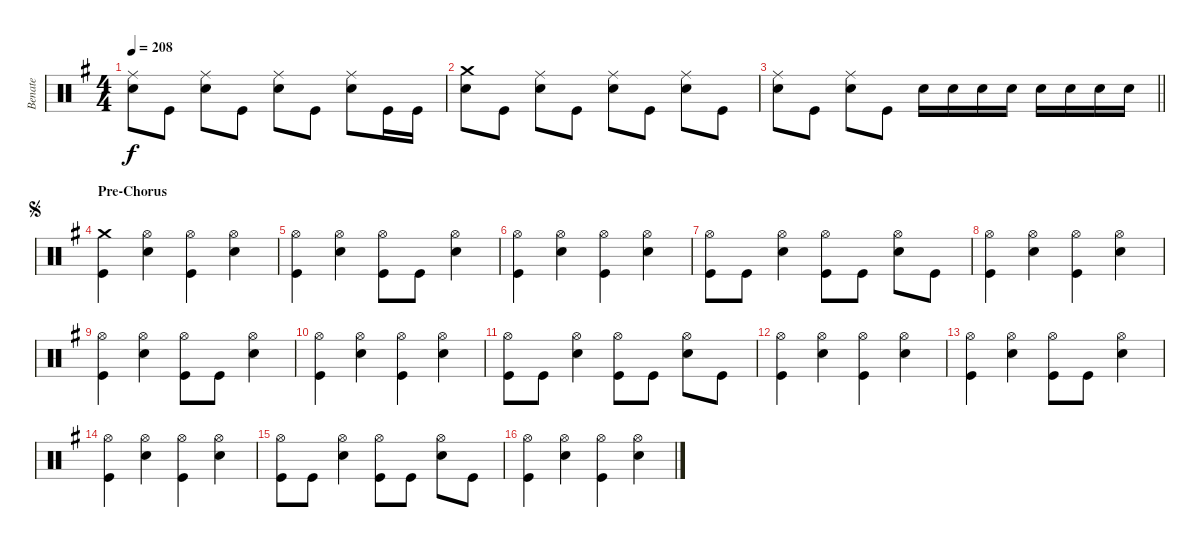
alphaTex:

\track ("Benate" "Benate") {instrument percussion}
\staff {score}
\articulation defaults
\ts (4 4)
\tempo 208
\clef neutral
\ks g
("Ride (middle)" "Snare (hit) 2").8{dy f} "Kick (hit)".8 ("Ride (middle)" "Snare (hit) 2").8 "Kick (hit)".8 ("Ride (middle)" "Snare (hit) 2").8 "Kick (hit)".8 ("Ride (middle)" "Snare (hit) 2").8 "Kick (hit)".16 "Kick (hit)".16 |
("Crash medium (hit)" "Snare (hit) 2").8 "Kick (hit)".8 ("Ride (middle)" "Snare (hit) 2").8 "Kick (hit)".8 ("Ride (middle)" "Snare (hit) 2").8 "Kick (hit)".8 ("Ride (middle)" "Snare (hit) 2").8 "Kick (hit)".8 |
\barLineRight lightlight
("Ride (middle)" "Snare (hit) 2").8 "Kick (hit)".8 ("Ride (middle)" "Snare (hit) 2").8 "Kick (hit)".8 "Snare (hit) 2".16 "Snare (hit) 2".16 "Snare (hit) 2".16 "Snare (hit) 2".16 "Snare (hit) 2".16 "Snare (hit) 2".16 "Snare (hit) 2".16 "Snare (hit) 2".16 |
\section ("" "Pre-Chorus")
\jump segno
("Crash medium (hit)" "Kick (hit)").4 ("Hi-Hat (open)" "Snare (hit) 2").4 ("Hi-Hat (open)" "Kick (hit)").4 ("Hi-Hat (open)" "Snare (hit) 2").4 |
("Hi-Hat (open)" "Kick (hit)").4 ("Hi-Hat (open)" "Snare (hit) 2").4 ("Hi-Hat (open)" "Kick (hit)").8 "Kick (hit)".8 ("Hi-Hat (open)" "Snare (hit) 2").4 |
("Hi-Hat (open)" "Kick (hit)").4 ("Hi-Hat (open)" "Snare (hit) 2").4 ("Hi-Hat (open)" "Kick (hit)").4 ("Hi-Hat (open)" "Snare (hit) 2").4 |
("Hi-Hat (open)" "Kick (hit)").8 "Kick (hit)".8 ("Hi-Hat (open)" "Snare (hit) 2").4 ("Hi-Hat (open)" "Kick (hit)").8 "Kick (hit)".8 ("Hi-Hat (open)" "Snare (hit) 2").8 "Kick (hit)".8 |
("Hi-Hat (open)" "Kick (hit)").4 ("Hi-Hat (open)" "Snare (hit) 2").4 ("Hi-Hat (open)" "Kick (hit)").4 ("Hi-Hat (open)" "Snare (hit) 2").4 |
("Hi-Hat (open)" "Kick (hit)").4 ("Hi-Hat (open)" "Snare (hit) 2").4 ("Hi-Hat (open)" "Kick (hit)").8 "Kick (hit)".8 ("Hi-Hat (open)" "Snare (hit) 2").4 |
("Hi-Hat (open)" "Kick (hit)").4 ("Hi-Hat (open)" "Snare (hit) 2").4 ("Hi-Hat (open)" "Kick (hit)").4 ("Hi-Hat (open)" "Snare (hit) 2").4 |
("Hi-Hat (open)" "Kick (hit)").8 "Kick (hit)".8 ("Hi-Hat (open)" "Snare (hit) 2").4 ("Hi-Hat (open)" "Kick (hit)").8 "Kick (hit)".8 ("Hi-Hat (open)" "Snare (hit) 2").8 "Kick (hit)".8 |
("Hi-Hat (open)" "Kick (hit)").4 ("Hi-Hat (open)" "Snare (hit) 2").4 ("Hi-Hat (open)" "Kick (hit)").4 ("Hi-Hat (open)" "Snare (hit) 2").4 |
("Hi-Hat (open)" "Kick (hit)").4 ("Hi-Hat (open)" "Snare (hit) 2").4 ("Hi-Hat (open)" "Kick (hit)").8 "Kick (hit)".8 ("Hi-Hat (open)" "Snare (hit) 2").4 |
("Hi-Hat (open)" "Kick (hit)").4 ("Hi-Hat (open)" "Snare (hit) 2").4 ("Hi-Hat (open)" "Kick (hit)").4 ("Hi-Hat (open)" "Snare (hit) 2").4 |
("Hi-Hat (open)" "Kick (hit)").8 "Kick (hit)".8 ("Hi-Hat (open)" "Snare (hit) 2").4 ("Hi-Hat (open)" "Kick (hit)").8 "Kick (hit)".8 ("Hi-Hat (open)" "Snare (hit) 2").8 "Kick (hit)".8 |
("Hi-Hat (open)" "Kick (hit)").4 ("Hi-Hat (open)" "Snare (hit) 2").4 ("Hi-Hat (open)" "Kick (hit)").4 ("Hi-Hat (open)" "Snare (hit) 2").4
